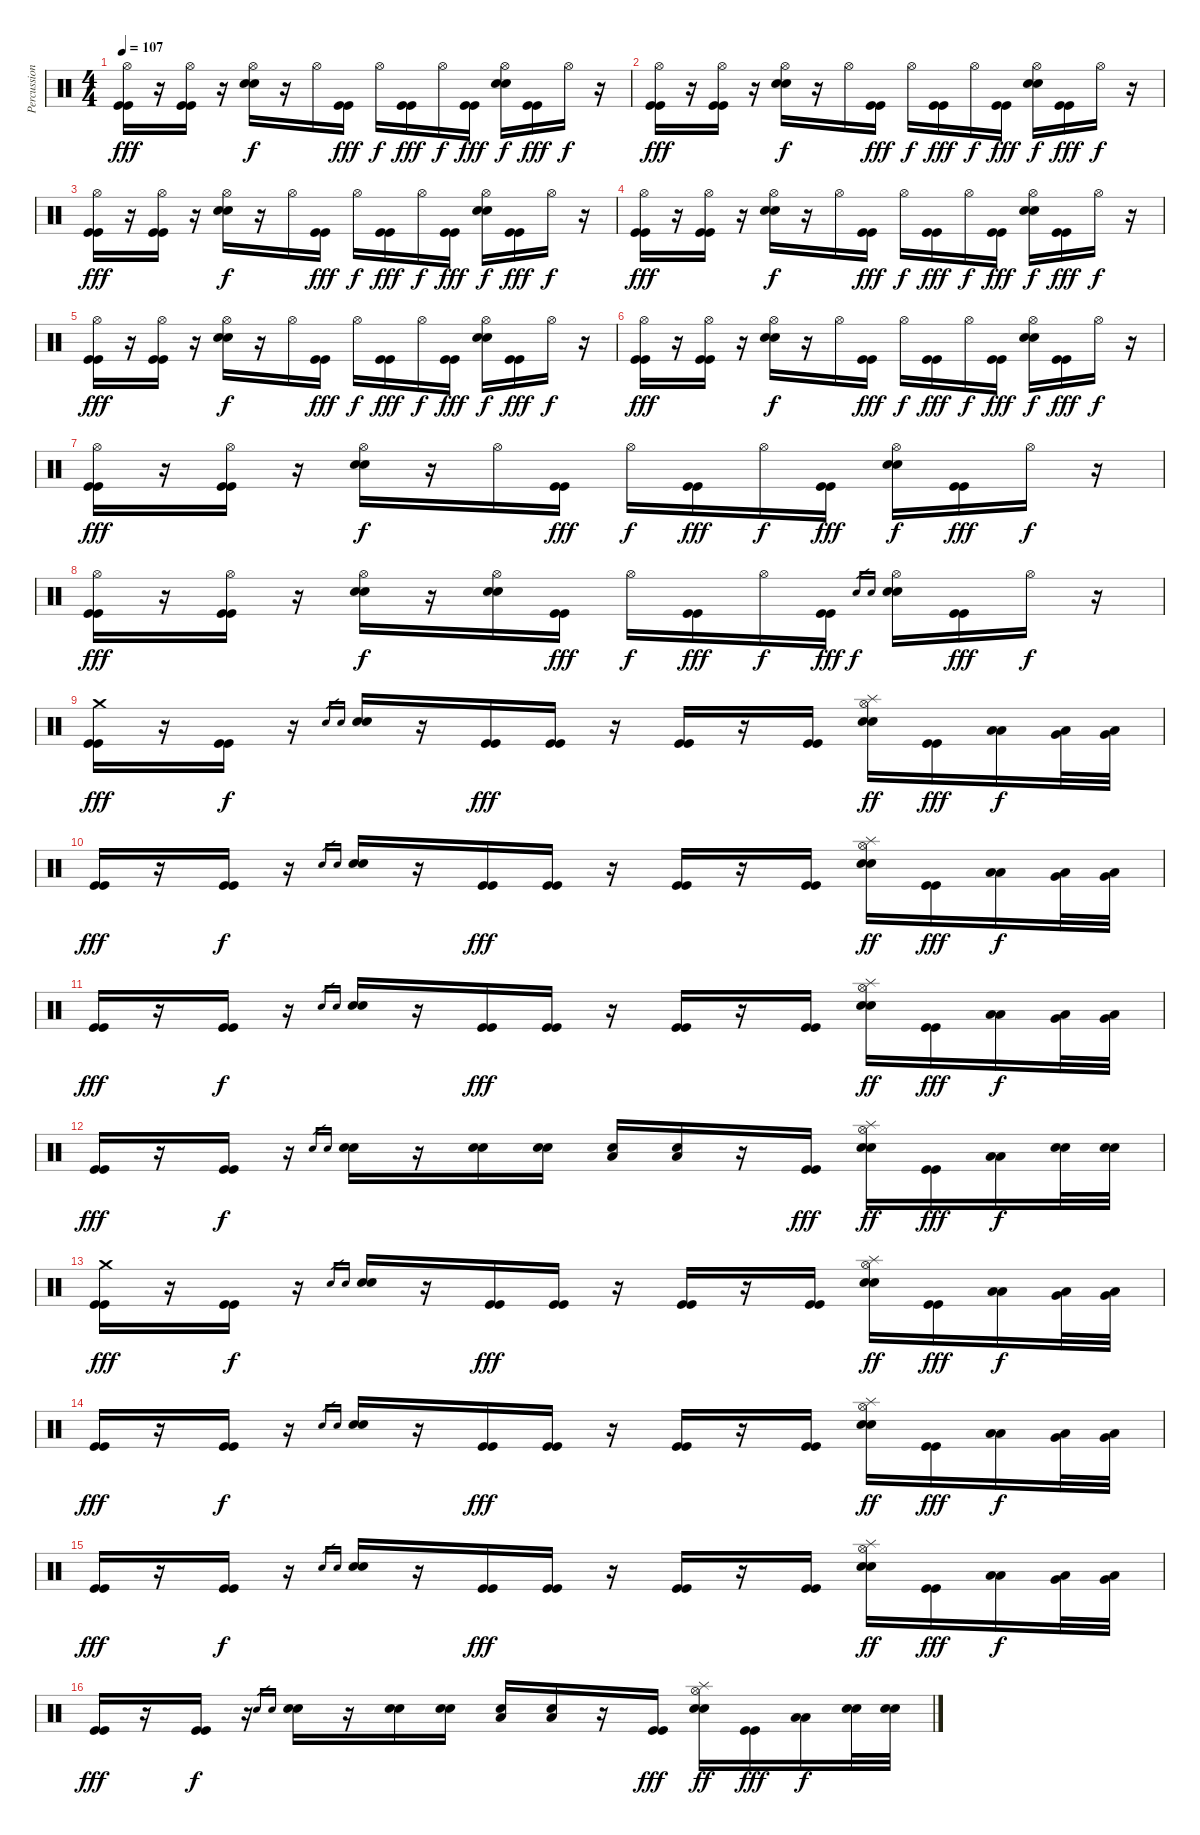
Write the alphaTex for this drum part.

\track ("Percussions" "Percussion") {instrument percussion}
\staff {score}
\articulation defaults
\ts (4 4)
\tempo 107
\clef neutral
\ks c
("Hi-Hat (open)" "Kick (hit)" "Kick (hit)").16{dy fff} r.16 ("Hi-Hat (open)" "Kick (hit)" "Kick (hit)").16 r.16 ("Hi-Hat (open)" "Electric Snare (hit)" "Electric Snare (hit)").16{dy f} r.16 "Hi-Hat (open)".16 ("Kick (hit)" "Kick (hit)").16{dy fff} "Hi-Hat (open)".16{dy f} ("Kick (hit)" "Kick (hit)").16{dy fff} "Hi-Hat (open)".16{dy f} ("Kick (hit)" "Kick (hit)").16{dy fff} ("Hi-Hat (open)" "Electric Snare (hit)" "Electric Snare (hit)").16{dy f} ("Kick (hit)" "Kick (hit)").16{dy fff} "Hi-Hat (open)".16{dy f} r.16 |
("Hi-Hat (open)" "Kick (hit)" "Kick (hit)").16{dy fff} r.16 ("Hi-Hat (open)" "Kick (hit)" "Kick (hit)").16 r.16 ("Hi-Hat (open)" "Electric Snare (hit)" "Electric Snare (hit)").16{dy f} r.16 "Hi-Hat (open)".16 ("Kick (hit)" "Kick (hit)").16{dy fff} "Hi-Hat (open)".16{dy f} ("Kick (hit)" "Kick (hit)").16{dy fff} "Hi-Hat (open)".16{dy f} ("Kick (hit)" "Kick (hit)").16{dy fff} ("Hi-Hat (open)" "Electric Snare (hit)" "Electric Snare (hit)").16{dy f} ("Kick (hit)" "Kick (hit)").16{dy fff} "Hi-Hat (open)".16{dy f} r.16 |
("Hi-Hat (open)" "Kick (hit)" "Kick (hit)").16{dy fff} r.16 ("Hi-Hat (open)" "Kick (hit)" "Kick (hit)").16 r.16 ("Hi-Hat (open)" "Electric Snare (hit)" "Electric Snare (hit)").16{dy f} r.16 "Hi-Hat (open)".16 ("Kick (hit)" "Kick (hit)").16{dy fff} "Hi-Hat (open)".16{dy f} ("Kick (hit)" "Kick (hit)").16{dy fff} "Hi-Hat (open)".16{dy f} ("Kick (hit)" "Kick (hit)").16{dy fff} ("Hi-Hat (open)" "Electric Snare (hit)" "Electric Snare (hit)").16{dy f} ("Kick (hit)" "Kick (hit)").16{dy fff} "Hi-Hat (open)".16{dy f} r.16 |
("Hi-Hat (open)" "Kick (hit)" "Kick (hit)").16{dy fff} r.16 ("Hi-Hat (open)" "Kick (hit)" "Kick (hit)").16 r.16 ("Hi-Hat (open)" "Electric Snare (hit)" "Electric Snare (hit)").16{dy f} r.16 "Hi-Hat (open)".16 ("Kick (hit)" "Kick (hit)").16{dy fff} "Hi-Hat (open)".16{dy f} ("Kick (hit)" "Kick (hit)").16{dy fff} "Hi-Hat (open)".16{dy f} ("Kick (hit)" "Kick (hit)").16{dy fff} ("Hi-Hat (open)" "Electric Snare (hit)" "Electric Snare (hit)").16{dy f} ("Kick (hit)" "Kick (hit)").16{dy fff} "Hi-Hat (open)".16{dy f} r.16 |
("Hi-Hat (open)" "Kick (hit)" "Kick (hit)").16{dy fff} r.16 ("Hi-Hat (open)" "Kick (hit)" "Kick (hit)").16 r.16 ("Hi-Hat (open)" "Electric Snare (hit)" "Electric Snare (hit)").16{dy f} r.16 "Hi-Hat (open)".16 ("Kick (hit)" "Kick (hit)").16{dy fff} "Hi-Hat (open)".16{dy f} ("Kick (hit)" "Kick (hit)").16{dy fff} "Hi-Hat (open)".16{dy f} ("Kick (hit)" "Kick (hit)").16{dy fff} ("Hi-Hat (open)" "Electric Snare (hit)" "Electric Snare (hit)").16{dy f} ("Kick (hit)" "Kick (hit)").16{dy fff} "Hi-Hat (open)".16{dy f} r.16 |
("Hi-Hat (open)" "Kick (hit)" "Kick (hit)").16{dy fff} r.16 ("Hi-Hat (open)" "Kick (hit)" "Kick (hit)").16 r.16 ("Hi-Hat (open)" "Electric Snare (hit)" "Electric Snare (hit)").16{dy f} r.16 "Hi-Hat (open)".16 ("Kick (hit)" "Kick (hit)").16{dy fff} "Hi-Hat (open)".16{dy f} ("Kick (hit)" "Kick (hit)").16{dy fff} "Hi-Hat (open)".16{dy f} ("Kick (hit)" "Kick (hit)").16{dy fff} ("Hi-Hat (open)" "Electric Snare (hit)" "Electric Snare (hit)").16{dy f} ("Kick (hit)" "Kick (hit)").16{dy fff} "Hi-Hat (open)".16{dy f} r.16 |
("Hi-Hat (open)" "Kick (hit)" "Kick (hit)").16{dy fff} r.16 ("Hi-Hat (open)" "Kick (hit)" "Kick (hit)").16 r.16 ("Hi-Hat (open)" "Electric Snare (hit)" "Electric Snare (hit)").16{dy f} r.16 "Hi-Hat (open)".16 ("Kick (hit)" "Kick (hit)").16{dy fff} "Hi-Hat (open)".16{dy f} ("Kick (hit)" "Kick (hit)").16{dy fff} "Hi-Hat (open)".16{dy f} ("Kick (hit)" "Kick (hit)").16{dy fff} ("Hi-Hat (open)" "Electric Snare (hit)" "Electric Snare (hit)").16{dy f} ("Kick (hit)" "Kick (hit)").16{dy fff} "Hi-Hat (open)".16{dy f} r.16 |
("Hi-Hat (open)" "Kick (hit)" "Kick (hit)").16{dy fff} r.16 ("Hi-Hat (open)" "Kick (hit)" "Kick (hit)").16 r.16 ("Hi-Hat (open)" "Electric Snare (hit)" "Electric Snare (hit)").16{dy f} r.16 ("Hi-Hat (open)" "Electric Snare (hit)" "Electric Snare (hit)").16 ("Kick (hit)" "Kick (hit)").16{dy fff} "Hi-Hat (open)".16{dy f} ("Kick (hit)" "Kick (hit)").16{dy fff} "Hi-Hat (open)".16{dy f} ("Kick (hit)" "Kick (hit)").16{dy fff} "Electric Snare (hit)".16{gr dy f} "Electric Snare (hit)".16{gr} ("Hi-Hat (open)" "Electric Snare (hit)" "Electric Snare (hit)").16 ("Kick (hit)" "Kick (hit)").16{dy fff} "Hi-Hat (open)".16{dy f} r.16 |
("Crash medium (hit)" "Kick (hit)" "Kick (hit)").16{dy fff} r.16 ("Kick (hit)" "Kick (hit)").16{dy f} r.16 "Electric Snare (hit)".16{gr} "Electric Snare (hit)".16{gr} ("Electric Snare (hit)" "Electric Snare (hit)").16 r.16 ("Kick (hit)" "Kick (hit)").16{dy fff} ("Kick (hit)" "Kick (hit)").16 r.16 ("Kick (hit)" "Kick (hit)").16 r.16 ("Kick (hit)" "Kick (hit)").16 ("Splash (hit)" "Hi-Hat (open)" "Electric Snare (hit)" "Electric Snare (hit)").16{dy ff} ("Kick (hit)" "Kick (hit)").16{dy fff} ("Low Floor Tom (hit)" "Low Floor Tom (hit)").16{dy f} ("Low Floor Tom (hit)" "Very Low Tom (hit)").32 ("Very Low Tom (hit)" "Low Tom (hit)").32 |
("Kick (hit)" "Kick (hit)").16{dy fff} r.16 ("Kick (hit)" "Kick (hit)").16{dy f} r.16 "Electric Snare (hit)".16{gr} "Electric Snare (hit)".16{gr} ("Electric Snare (hit)" "Electric Snare (hit)").16 r.16 ("Kick (hit)" "Kick (hit)").16{dy fff} ("Kick (hit)" "Kick (hit)").16 r.16 ("Kick (hit)" "Kick (hit)").16 r.16 ("Kick (hit)" "Kick (hit)").16 ("Splash (hit)" "Hi-Hat (open)" "Electric Snare (hit)" "Electric Snare (hit)").16{dy ff} ("Kick (hit)" "Kick (hit)").16{dy fff} ("Low Floor Tom (hit)" "Low Floor Tom (hit)").16{dy f} ("Low Floor Tom (hit)" "Very Low Tom (hit)").32 ("Very Low Tom (hit)" "Low Tom (hit)").32 |
("Kick (hit)" "Kick (hit)").16{dy fff} r.16 ("Kick (hit)" "Kick (hit)").16{dy f} r.16 "Electric Snare (hit)".16{gr} "Electric Snare (hit)".16{gr} ("Electric Snare (hit)" "Electric Snare (hit)").16 r.16 ("Kick (hit)" "Kick (hit)").16{dy fff} ("Kick (hit)" "Kick (hit)").16 r.16 ("Kick (hit)" "Kick (hit)").16 r.16 ("Kick (hit)" "Kick (hit)").16 ("Splash (hit)" "Hi-Hat (open)" "Electric Snare (hit)" "Electric Snare (hit)").16{dy ff} ("Kick (hit)" "Kick (hit)").16{dy fff} ("Low Floor Tom (hit)" "Low Floor Tom (hit)").16{dy f} ("Low Floor Tom (hit)" "Very Low Tom (hit)").32 ("Very Low Tom (hit)" "Low Tom (hit)").32 |
("Kick (hit)" "Kick (hit)").16{dy fff} r.16 ("Kick (hit)" "Kick (hit)").16{dy f} r.16 "Electric Snare (hit)".16{gr} "Electric Snare (hit)".16{gr} ("Electric Snare (hit)" "Electric Snare (hit)").16 r.16 ("Electric Snare (hit)" "Electric Snare (hit)").16 ("Electric Snare (hit)" "Electric Snare (hit)").16 ("Low Floor Tom (hit)" "Electric Snare (hit)").16 ("Low Floor Tom (hit)" "Electric Snare (hit)").16 r.16 ("Kick (hit)" "Kick (hit)").16{dy fff} ("Splash (hit)" "Hi-Hat (open)" "Electric Snare (hit)" "Electric Snare (hit)").16{dy ff} ("Kick (hit)" "Kick (hit)").16{dy fff} ("Low Floor Tom (hit)" "Low Floor Tom (hit)").16{dy f} ("Electric Snare (hit)" "Electric Snare (hit)").32 ("Electric Snare (hit)" "Electric Snare (hit)").32 |
("Crash medium (hit)" "Kick (hit)" "Kick (hit)").16{dy fff} r.16 ("Kick (hit)" "Kick (hit)").16{dy f} r.16 "Electric Snare (hit)".16{gr} "Electric Snare (hit)".16{gr} ("Electric Snare (hit)" "Electric Snare (hit)").16 r.16 ("Kick (hit)" "Kick (hit)").16{dy fff} ("Kick (hit)" "Kick (hit)").16 r.16 ("Kick (hit)" "Kick (hit)").16 r.16 ("Kick (hit)" "Kick (hit)").16 ("Splash (hit)" "Hi-Hat (open)" "Electric Snare (hit)" "Electric Snare (hit)").16{dy ff} ("Kick (hit)" "Kick (hit)").16{dy fff} ("Low Floor Tom (hit)" "Low Floor Tom (hit)").16{dy f} ("Low Floor Tom (hit)" "Very Low Tom (hit)").32 ("Very Low Tom (hit)" "Low Tom (hit)").32 |
("Kick (hit)" "Kick (hit)").16{dy fff} r.16 ("Kick (hit)" "Kick (hit)").16{dy f} r.16 "Electric Snare (hit)".16{gr} "Electric Snare (hit)".16{gr} ("Electric Snare (hit)" "Electric Snare (hit)").16 r.16 ("Kick (hit)" "Kick (hit)").16{dy fff} ("Kick (hit)" "Kick (hit)").16 r.16 ("Kick (hit)" "Kick (hit)").16 r.16 ("Kick (hit)" "Kick (hit)").16 ("Splash (hit)" "Hi-Hat (open)" "Electric Snare (hit)" "Electric Snare (hit)").16{dy ff} ("Kick (hit)" "Kick (hit)").16{dy fff} ("Low Floor Tom (hit)" "Low Floor Tom (hit)").16{dy f} ("Low Floor Tom (hit)" "Very Low Tom (hit)").32 ("Very Low Tom (hit)" "Low Tom (hit)").32 |
("Kick (hit)" "Kick (hit)").16{dy fff} r.16 ("Kick (hit)" "Kick (hit)").16{dy f} r.16 "Electric Snare (hit)".16{gr} "Electric Snare (hit)".16{gr} ("Electric Snare (hit)" "Electric Snare (hit)").16 r.16 ("Kick (hit)" "Kick (hit)").16{dy fff} ("Kick (hit)" "Kick (hit)").16 r.16 ("Kick (hit)" "Kick (hit)").16 r.16 ("Kick (hit)" "Kick (hit)").16 ("Splash (hit)" "Hi-Hat (open)" "Electric Snare (hit)" "Electric Snare (hit)").16{dy ff} ("Kick (hit)" "Kick (hit)").16{dy fff} ("Low Floor Tom (hit)" "Low Floor Tom (hit)").16{dy f} ("Low Floor Tom (hit)" "Very Low Tom (hit)").32 ("Very Low Tom (hit)" "Low Tom (hit)").32 |
("Kick (hit)" "Kick (hit)").16{dy fff} r.16 ("Kick (hit)" "Kick (hit)").16{dy f} r.16 "Electric Snare (hit)".16{gr} "Electric Snare (hit)".16{gr} ("Electric Snare (hit)" "Electric Snare (hit)").16 r.16 ("Electric Snare (hit)" "Electric Snare (hit)").16 ("Electric Snare (hit)" "Electric Snare (hit)").16 ("Low Floor Tom (hit)" "Electric Snare (hit)").16 ("Low Floor Tom (hit)" "Electric Snare (hit)").16 r.16 ("Kick (hit)" "Kick (hit)").16{dy fff} ("Splash (hit)" "Hi-Hat (open)" "Electric Snare (hit)" "Electric Snare (hit)").16{dy ff} ("Kick (hit)" "Kick (hit)").16{dy fff} ("Low Floor Tom (hit)" "Low Floor Tom (hit)").16{dy f} ("Electric Snare (hit)" "Electric Snare (hit)").32 ("Electric Snare (hit)" "Electric Snare (hit)").32
